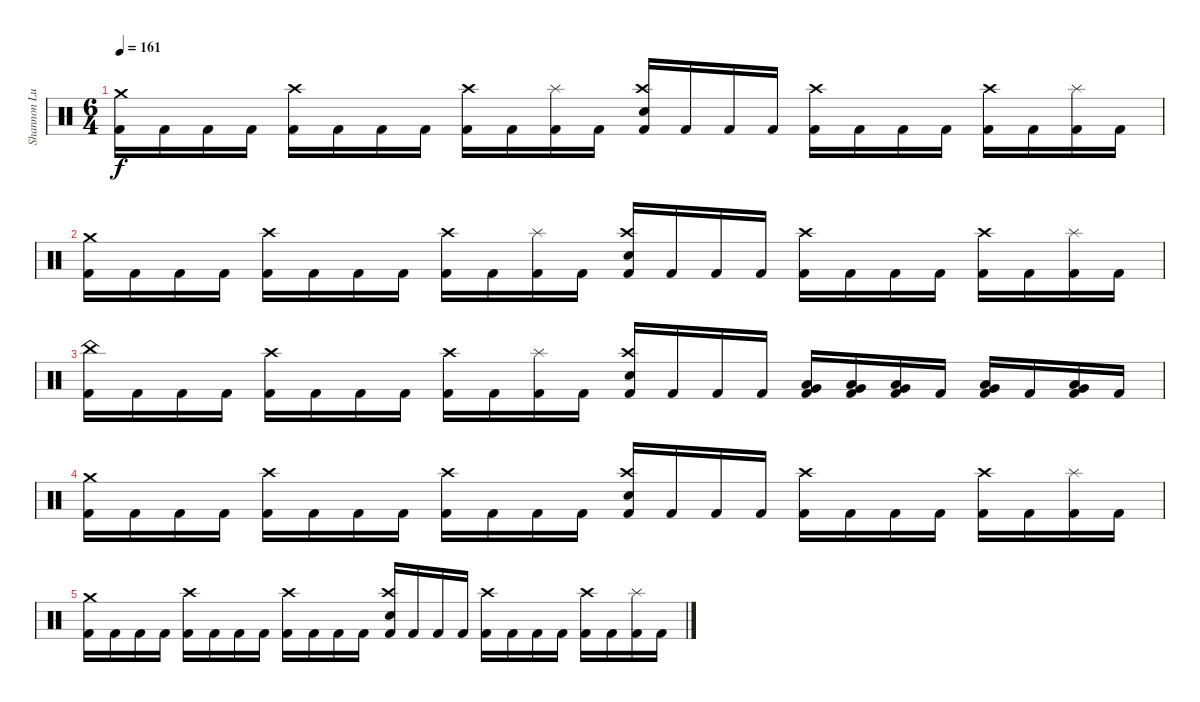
\track ("Shannon Lucas (Drums)" "Shannon Lu") {instrument percussion}
\staff {score}
\articulation defaults
\ts (6 4)
\tempo 161
\clef neutral
\ks c
("Crash medium (hit)" "Kick (hit) 2").16{dy f volume 8} "Kick (hit) 2".16 "Kick (hit) 2".16 "Kick (hit) 2".16 ("Crash high (hit)" "Kick (hit) 2").16 "Kick (hit) 2".16 "Kick (hit) 2".16 "Kick (hit) 2".16 ("Crash high (hit)" "Kick (hit) 2").16 "Kick (hit) 2".16 ("Splash (hit)" "Kick (hit) 2").16 "Kick (hit) 2".16 ("Snare (hit) 2" "Crash high (hit)" "Kick (hit) 2").16 "Kick (hit) 2".16 "Kick (hit) 2".16 "Kick (hit) 2".16 ("Crash high (hit)" "Kick (hit) 2").16 "Kick (hit) 2".16 "Kick (hit) 2".16 "Kick (hit) 2".16 ("Crash high (hit)" "Kick (hit) 2").16 "Kick (hit) 2".16 ("Splash (hit)" "Kick (hit) 2").16 "Kick (hit) 2".16 |
("Crash medium (hit)" "Kick (hit) 2").16{volume 6} "Kick (hit) 2".16 "Kick (hit) 2".16 "Kick (hit) 2".16 ("Crash high (hit)" "Kick (hit) 2").16 "Kick (hit) 2".16 "Kick (hit) 2".16 "Kick (hit) 2".16 ("Crash high (hit)" "Kick (hit) 2").16 "Kick (hit) 2".16 ("Splash (hit)" "Kick (hit) 2").16 "Kick (hit) 2".16 ("Snare (hit) 2" "Crash high (hit)" "Kick (hit) 2").16 "Kick (hit) 2".16 "Kick (hit) 2".16 "Kick (hit) 2".16 ("Crash high (hit)" "Kick (hit) 2").16 "Kick (hit) 2".16 "Kick (hit) 2".16 "Kick (hit) 2".16 ("Crash high (hit)" "Kick (hit) 2").16 "Kick (hit) 2".16 ("Splash (hit)" "Kick (hit) 2").16 "Kick (hit) 2".16 |
("China (hit)" "Kick (hit) 2").16{volume 4} "Kick (hit) 2".16 "Kick (hit) 2".16 "Kick (hit) 2".16 ("Crash high (hit)" "Kick (hit) 2").16 "Kick (hit) 2".16 "Kick (hit) 2".16 "Kick (hit) 2".16 ("Crash high (hit)" "Kick (hit) 2").16 "Kick (hit) 2".16 ("Splash (hit)" "Kick (hit) 2").16 "Kick (hit) 2".16 ("Snare (hit) 2" "Crash high (hit)" "Kick (hit) 2").16 "Kick (hit) 2".16 "Kick (hit) 2".16 "Kick (hit) 2".16 ("Low Tom (hit)" "Very Low Tom (hit)" "Kick (hit) 2").16 ("Low Tom (hit)" "Very Low Tom (hit)" "Kick (hit) 2").16 ("Very Low Tom (hit)" "Low Floor Tom (hit)" "Kick (hit) 2").16 "Kick (hit) 2".16 ("Very Low Tom (hit)" "Low Floor Tom (hit)" "Kick (hit) 2").16 "Kick (hit) 2".16 ("Very Low Tom (hit)" "Low Floor Tom (hit)" "Kick (hit) 2").16 "Kick (hit) 2".16 |
("Crash medium (hit)" "Kick (hit) 2").16{volume 2} "Kick (hit) 2".16 "Kick (hit) 2".16 "Kick (hit) 2".16 ("Crash high (hit)" "Kick (hit) 2").16 "Kick (hit) 2".16 "Kick (hit) 2".16 "Kick (hit) 2".16 ("Crash high (hit)" "Kick (hit) 2").16 "Kick (hit) 2".16 "Kick (hit) 2".16 "Kick (hit) 2".16 ("Snare (hit) 2" "Crash high (hit)" "Kick (hit) 2").16 "Kick (hit) 2".16 "Kick (hit) 2".16 "Kick (hit) 2".16 ("Crash high (hit)" "Kick (hit) 2").16 "Kick (hit) 2".16 "Kick (hit) 2".16 "Kick (hit) 2".16 ("Crash high (hit)" "Kick (hit) 2").16 "Kick (hit) 2".16 ("Splash (hit)" "Kick (hit) 2").16 "Kick (hit) 2".16 |
("Crash medium (hit)" "Kick (hit) 2").16{volume 0} "Kick (hit) 2".16 "Kick (hit) 2".16 "Kick (hit) 2".16 ("Crash high (hit)" "Kick (hit) 2").16 "Kick (hit) 2".16 "Kick (hit) 2".16 "Kick (hit) 2".16 ("Crash high (hit)" "Kick (hit) 2").16 "Kick (hit) 2".16 "Kick (hit) 2".16 "Kick (hit) 2".16 ("Snare (hit) 2" "Crash high (hit)" "Kick (hit) 2").16 "Kick (hit) 2".16 "Kick (hit) 2".16 "Kick (hit) 2".16 ("Crash high (hit)" "Kick (hit) 2").16 "Kick (hit) 2".16 "Kick (hit) 2".16 "Kick (hit) 2".16 ("Crash high (hit)" "Kick (hit) 2").16 "Kick (hit) 2".16 ("Splash (hit)" "Kick (hit) 2").16 "Kick (hit) 2".16
